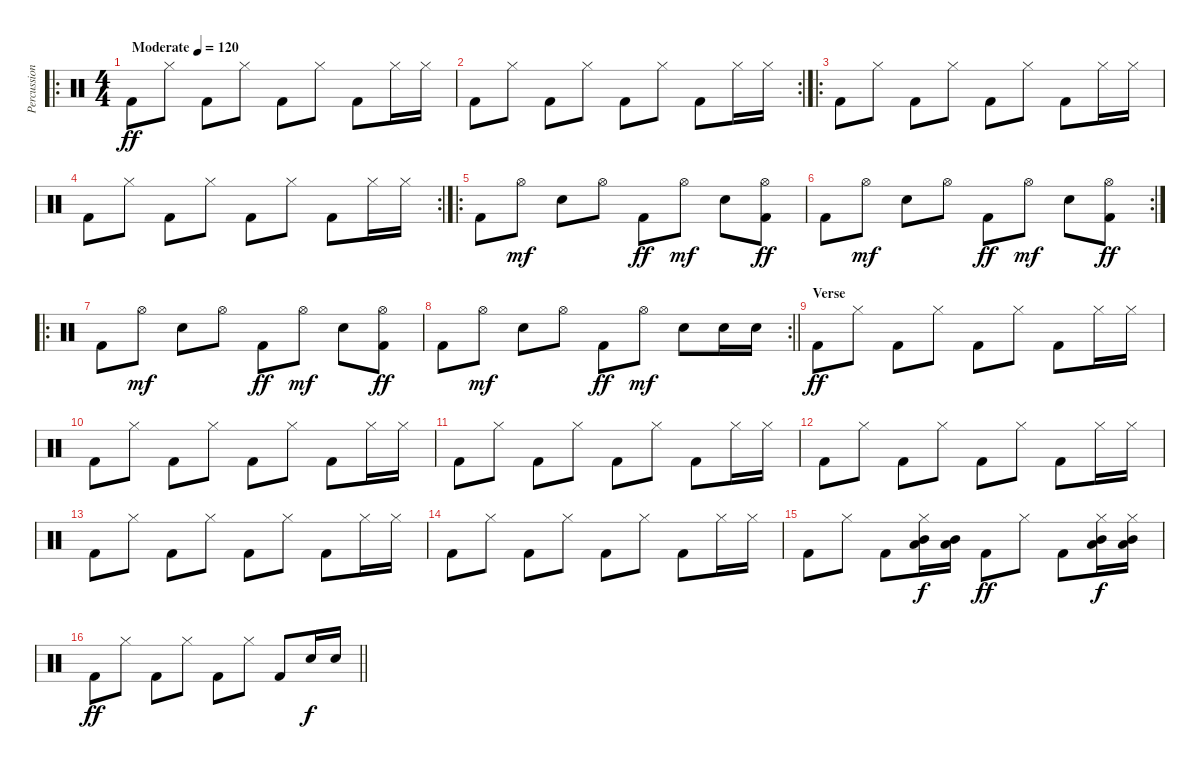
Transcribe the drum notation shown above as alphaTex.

\track ("Percussion" "Percussion") {instrument percussion}
\staff {score}
\articulation defaults
\ro
\ts (4 4)
\tempo (120 "Moderate")
\clef neutral
\ks c "Kick (hit) 2".8{dy ff volume 12} "Hi-Hat (closed)".8 "Kick (hit) 2".8 "Hi-Hat (closed)".8 "Kick (hit) 2".8 "Hi-Hat (closed)".8 "Kick (hit) 2".8 "Hi-Hat (closed)".16 "Hi-Hat (closed)".16
|
\rc 2 "Kick (hit) 2".8 "Hi-Hat (closed)".8 "Kick (hit) 2".8 "Hi-Hat (closed)".8 "Kick (hit) 2".8 "Hi-Hat (closed)".8 "Kick (hit) 2".8 "Hi-Hat (closed)".16 "Hi-Hat (closed)".16
|
\ro "Kick (hit) 2".8 "Hi-Hat (closed)".8 "Kick (hit) 2".8 "Hi-Hat (closed)".8 "Kick (hit) 2".8 "Hi-Hat (closed)".8 "Kick (hit) 2".8 "Hi-Hat (closed)".16 "Hi-Hat (closed)".16
|
\rc 2 "Kick (hit) 2".8 "Hi-Hat (closed)".8 "Kick (hit) 2".8 "Hi-Hat (closed)".8 "Kick (hit) 2".8 "Hi-Hat (closed)".8 "Kick (hit) 2".8 "Hi-Hat (closed)".16 "Hi-Hat (closed)".16
|
\ro "Kick (hit) 2".8 "Hi-Hat (open)".8{dy mf} "Electric Snare (hit)".8 "Hi-Hat (open)".8 "Kick (hit) 2".8{dy ff} "Hi-Hat (open)".8{dy mf} "Electric Snare (hit)".8
("Hi-Hat (open)" "Kick (hit) 2").8{dy ff} |
\rc 2 "Kick (hit) 2".8 "Hi-Hat (open)".8{dy mf} "Electric Snare (hit)".8 "Hi-Hat (open)".8 "Kick (hit) 2".8{dy ff} "Hi-Hat (open)".8{dy mf} "Electric Snare (hit)".8
("Hi-Hat (open)" "Kick (hit) 2").8{dy ff} |
\ro "Kick (hit) 2".8 "Hi-Hat (open)".8{dy mf} "Electric Snare (hit)".8 "Hi-Hat (open)".8 "Kick (hit) 2".8{dy ff} "Hi-Hat (open)".8{dy mf} "Electric Snare (hit)".8
("Hi-Hat (open)" "Kick (hit) 2").8{dy ff} |
\rc 2
\barLineRight lightlight "Kick (hit) 2".8 "Hi-Hat (open)".8{dy mf} "Electric Snare (hit)".8 "Hi-Hat (open)".8 "Kick (hit) 2".8{dy ff} "Hi-Hat (open)".8{dy mf} "Electric Snare (hit)".8 "Electric Snare (hit)".16 "Electric Snare (hit)".16
|
\section ("" "Verse")
"Kick (hit) 2".8{dy ff} "Hi-Hat (closed)".8 "Kick (hit) 2".8 "Hi-Hat (closed)".8 "Kick (hit) 2".8 "Hi-Hat (closed)".8 "Kick (hit) 2".8 "Hi-Hat (closed)".16 "Hi-Hat (closed)".16 |
"Kick (hit) 2".8 "Hi-Hat (closed)".8 "Kick (hit) 2".8 "Hi-Hat (closed)".8 "Kick (hit) 2".8 "Hi-Hat (closed)".8 "Kick (hit) 2".8 "Hi-Hat (closed)".16 "Hi-Hat (closed)".16 |
"Kick (hit) 2".8 "Hi-Hat (closed)".8 "Kick (hit) 2".8 "Hi-Hat (closed)".8 "Kick (hit) 2".8 "Hi-Hat (closed)".8 "Kick (hit) 2".8 "Hi-Hat (closed)".16 "Hi-Hat (closed)".16 |
"Kick (hit) 2".8 "Hi-Hat (closed)".8 "Kick (hit) 2".8 "Hi-Hat (closed)".8 "Kick (hit) 2".8 "Hi-Hat (closed)".8 "Kick (hit) 2".8 "Hi-Hat (closed)".16 "Hi-Hat (closed)".16 |
"Kick (hit) 2".8 "Hi-Hat (closed)".8 "Kick (hit) 2".8 "Hi-Hat (closed)".8 "Kick (hit) 2".8 "Hi-Hat (closed)".8 "Kick (hit) 2".8 "Hi-Hat (closed)".16 "Hi-Hat (closed)".16 |
"Kick (hit) 2".8 "Hi-Hat (closed)".8 "Kick (hit) 2".8 "Hi-Hat (closed)".8 "Kick (hit) 2".8 "Hi-Hat (closed)".8 "Kick (hit) 2".8 "Hi-Hat (closed)".16 "Hi-Hat (closed)".16 |
"Kick (hit) 2".8 "Hi-Hat (closed)".8 "Kick (hit) 2".8 ("Hi-Hat (closed)" "Mid Tom (hit)" "Low Tom (hit)").16{dy f} ("Mid Tom (hit)" "Low Tom (hit)").16 "Kick (hit) 2".8{dy ff} "Hi-Hat (closed)".8 "Kick (hit) 2".8 ("Hi-Hat (closed)" "Mid Tom (hit)" "Low Tom (hit)").16{dy f} ("Hi-Hat (closed)" "Mid Tom (hit)" "Low Tom (hit)").16 |
\barLineRight lightlight "Kick (hit) 2".8{dy ff} "Hi-Hat (closed)".8 "Kick (hit) 2".8 "Hi-Hat (closed)".8 "Kick (hit) 2".8 "Hi-Hat (closed)".8 "Kick (hit) 2".8 "Electric Snare (hit)".16{dy f} "Electric Snare (hit)".16
